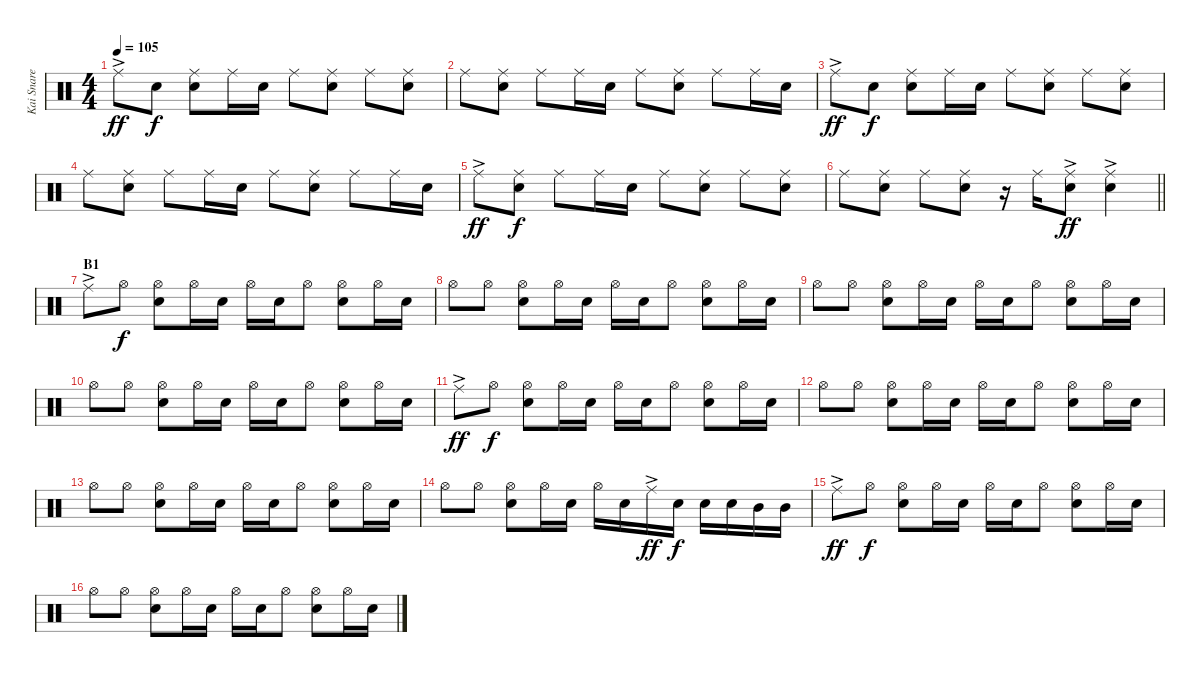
\track ("Kai Snare" "Kai Snare") {instrument percussion}
\staff {score}
\articulation defaults
\ts (4 4)
\tempo 105
\clef neutral
\ks c "Ride (middle)"{ac}.8{dy ff} "Snare (hit) 2".8{dy f}
("Ride (middle)" "Snare (hit) 2").8 "Ride (middle)".16 "Snare (hit) 2".16 "Ride (middle)".8 ("Ride (middle)" "Snare (hit) 2").8 "Ride (middle)".8 ("Ride (middle)" "Snare (hit) 2").8 |
"Ride (middle)".8 ("Ride (middle)" "Snare (hit) 2").8 "Ride (middle)".8 "Ride (middle)".16 "Snare (hit) 2".16 "Ride (middle)".8 ("Ride (middle)" "Snare (hit) 2").8 "Ride (middle)".8 "Ride (middle)".16 "Snare (hit) 2".16 |
"Ride (middle)"{ac}.8{dy ff} "Snare (hit) 2".8{dy f} ("Ride (middle)" "Snare (hit) 2").8 "Ride (middle)".16 "Snare (hit) 2".16 "Ride (middle)".8 ("Ride (middle)" "Snare (hit) 2").8 "Ride (middle)".8 ("Ride (middle)" "Snare (hit) 2").8 |
"Ride (middle)".8 ("Ride (middle)" "Snare (hit) 2").8 "Ride (middle)".8 "Ride (middle)".16 "Snare (hit) 2".16 "Ride (middle)".8 ("Ride (middle)" "Snare (hit) 2").8 "Ride (middle)".8 "Ride (middle)".16 "Snare (hit) 2".16 |
"Ride (middle)"{ac}.8{dy ff} ("Ride (middle)" "Snare (hit) 2").8{dy f} "Ride (middle)".8 "Ride (middle)".16 "Snare (hit) 2".16 "Ride (middle)".8 ("Ride (middle)" "Snare (hit) 2").8 "Ride (middle)".8 ("Ride (middle)" "Snare (hit) 2").8 |
\barLineRight lightlight "Ride (middle)".8
("Ride (middle)" "Snare (hit) 2").8 "Ride (middle)".8 ("Ride (middle)" "Snare (hit) 2").8 r.16 "Ride (middle)".16 ("Ride (middle)"{ac} "Snare (hit) 2").8{dy ff} ("Ride (middle)"{ac} "Snare (hit) 2").4 |
\section ("" "B1")
"Ride (middle)"{ac}.8 "Hi-Hat (open)".8{dy f} ("Hi-Hat (open)" "Snare (hit) 2").8 "Hi-Hat (open)".16 "Snare (hit) 2".16 "Hi-Hat (open)".16 "Snare (hit) 2".16 "Hi-Hat (open)".8 ("Hi-Hat (open)" "Snare (hit) 2").8 "Hi-Hat (open)".16 "Snare (hit) 2".16 |
"Hi-Hat (open)".8 "Hi-Hat (open)".8 ("Hi-Hat (open)" "Snare (hit) 2").8 "Hi-Hat (open)".16 "Snare (hit) 2".16 "Hi-Hat (open)".16 "Snare (hit) 2".16 "Hi-Hat (open)".8 ("Hi-Hat (open)" "Snare (hit) 2").8 "Hi-Hat (open)".16 "Snare (hit) 2".16 |
"Hi-Hat (open)".8 "Hi-Hat (open)".8 ("Hi-Hat (open)" "Snare (hit) 2").8 "Hi-Hat (open)".16 "Snare (hit) 2".16 "Hi-Hat (open)".16 "Snare (hit) 2".16 "Hi-Hat (open)".8 ("Hi-Hat (open)" "Snare (hit) 2").8 "Hi-Hat (open)".16 "Snare (hit) 2".16 |
"Hi-Hat (open)".8 "Hi-Hat (open)".8 ("Hi-Hat (open)" "Snare (hit) 2").8 "Hi-Hat (open)".16 "Snare (hit) 2".16 "Hi-Hat (open)".16 "Snare (hit) 2".16 "Hi-Hat (open)".8 ("Hi-Hat (open)" "Snare (hit) 2").8 "Hi-Hat (open)".16 "Snare (hit) 2".16 |
"Ride (middle)"{ac}.8{dy ff} "Hi-Hat (open)".8{dy f} ("Hi-Hat (open)" "Snare (hit) 2").8 "Hi-Hat (open)".16 "Snare (hit) 2".16 "Hi-Hat (open)".16 "Snare (hit) 2".16 "Hi-Hat (open)".8 ("Hi-Hat (open)" "Snare (hit) 2").8 "Hi-Hat (open)".16 "Snare (hit) 2".16 |
"Hi-Hat (open)".8 "Hi-Hat (open)".8 ("Hi-Hat (open)" "Snare (hit) 2").8 "Hi-Hat (open)".16 "Snare (hit) 2".16 "Hi-Hat (open)".16 "Snare (hit) 2".16 "Hi-Hat (open)".8 ("Hi-Hat (open)" "Snare (hit) 2").8 "Hi-Hat (open)".16 "Snare (hit) 2".16 |
"Hi-Hat (open)".8 "Hi-Hat (open)".8 ("Hi-Hat (open)" "Snare (hit) 2").8 "Hi-Hat (open)".16 "Snare (hit) 2".16 "Hi-Hat (open)".16 "Snare (hit) 2".16 "Hi-Hat (open)".8 ("Hi-Hat (open)" "Snare (hit) 2").8 "Hi-Hat (open)".16 "Snare (hit) 2".16 |
"Hi-Hat (open)".8 "Hi-Hat (open)".8 ("Hi-Hat (open)" "Snare (hit) 2").8 "Hi-Hat (open)".16 "Snare (hit) 2".16 "Hi-Hat (open)".16 "Snare (hit) 2".16 "Ride (middle)"{ac}.16{dy ff} "Snare (hit) 2".16{dy f} "Snare (hit) 2".16 "Snare (hit) 2".16 "Mid Tom (hit)".16 "Mid Tom (hit)".16 |
"Ride (middle)"{ac}.8{dy ff} "Hi-Hat (open)".8{dy f} ("Hi-Hat (open)" "Snare (hit) 2").8 "Hi-Hat (open)".16 "Snare (hit) 2".16 "Hi-Hat (open)".16 "Snare (hit) 2".16 "Hi-Hat (open)".8 ("Hi-Hat (open)" "Snare (hit) 2").8 "Hi-Hat (open)".16 "Snare (hit) 2".16 |
"Hi-Hat (open)".8 "Hi-Hat (open)".8 ("Hi-Hat (open)" "Snare (hit) 2").8 "Hi-Hat (open)".16 "Snare (hit) 2".16 "Hi-Hat (open)".16 "Snare (hit) 2".16 "Hi-Hat (open)".8 ("Hi-Hat (open)" "Snare (hit) 2").8 "Hi-Hat (open)".16 "Snare (hit) 2".16
